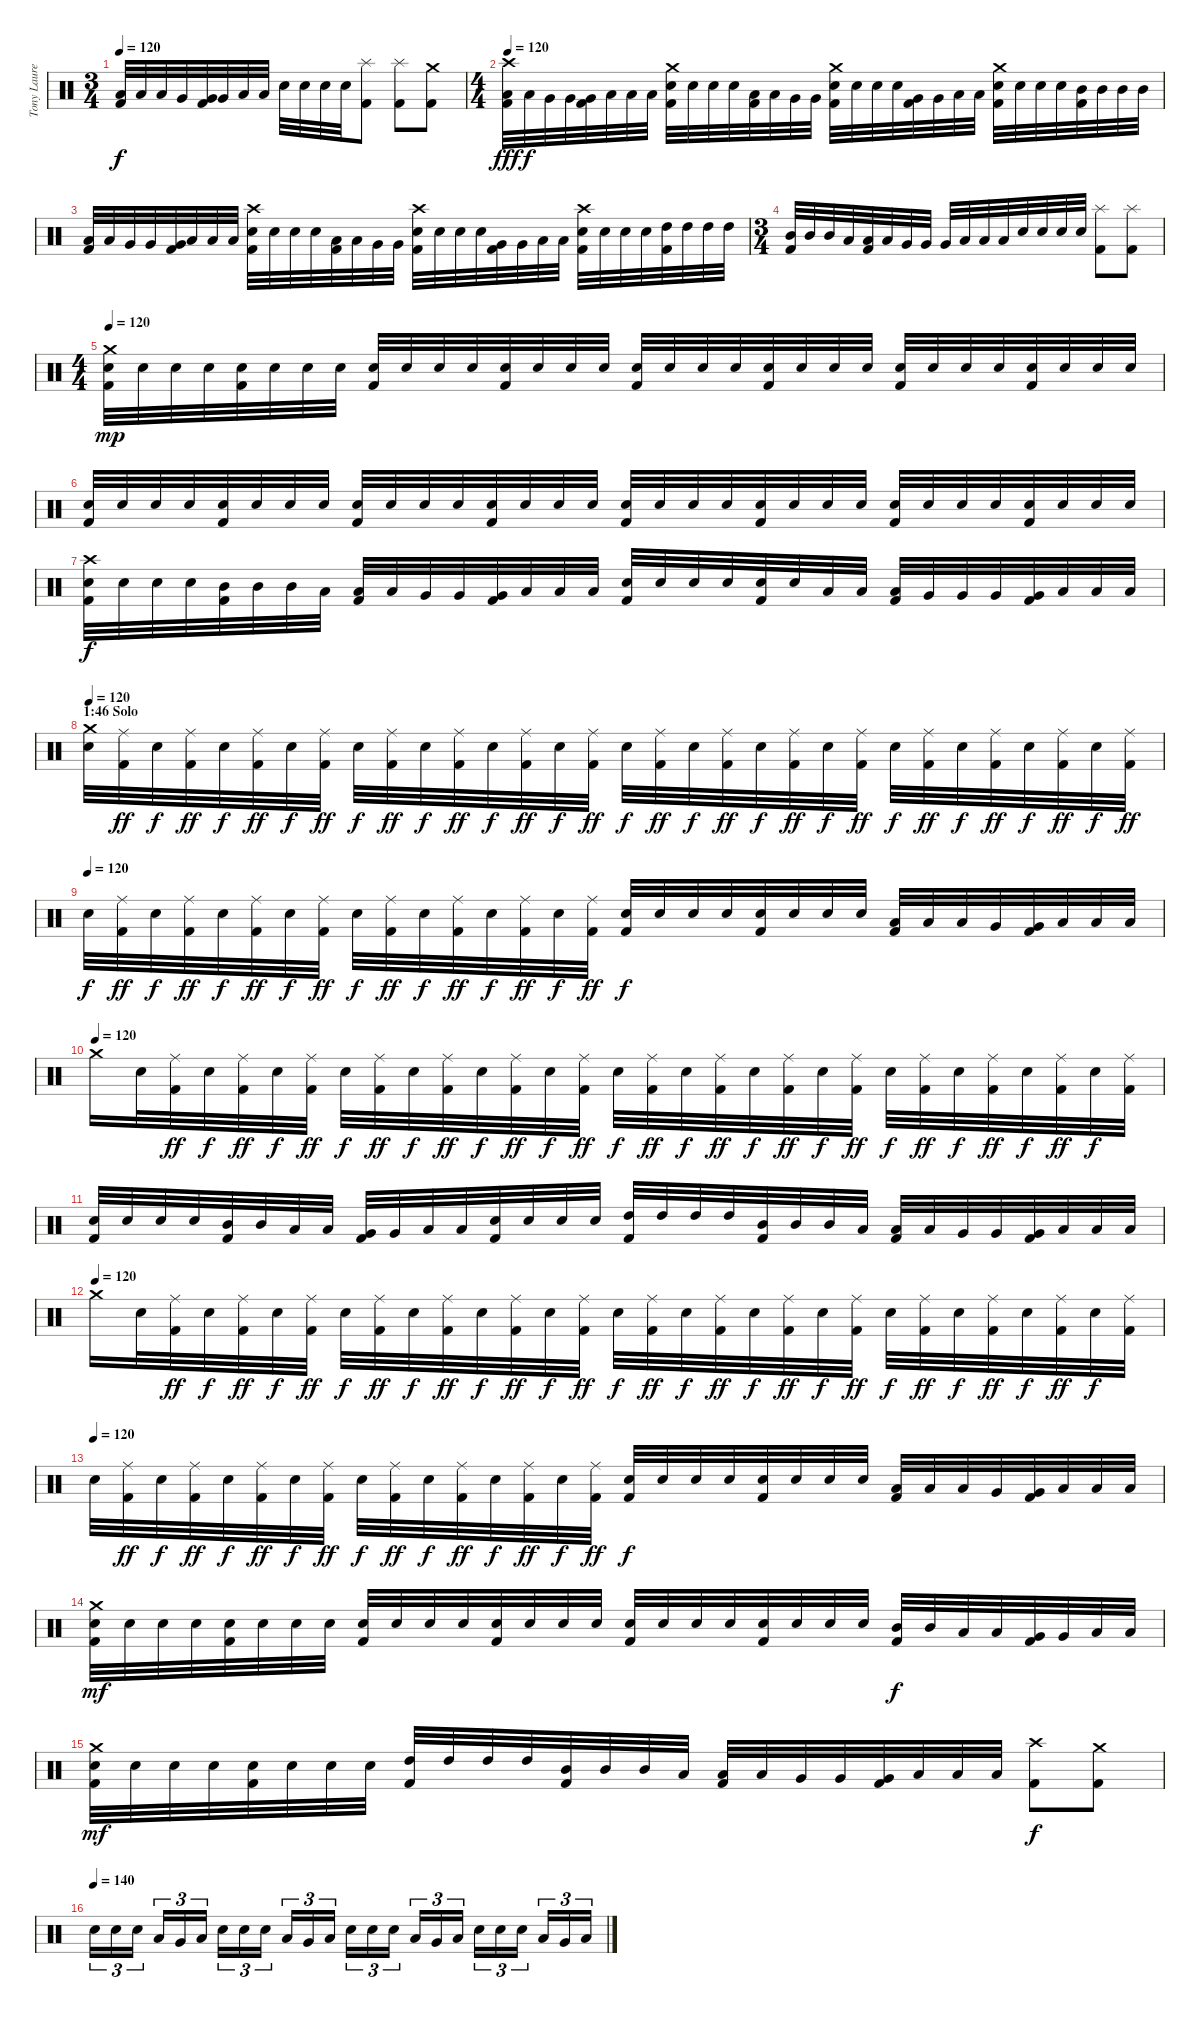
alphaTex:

\track ("Tony Laureano" "Tony Laure") {instrument percussion}
\staff {score}
\articulation defaults
\ts (3 4)
\tempo 120
\clef neutral
\ks c
("Low Tom (hit)" "Kick (hit) 2").32{dy f} "Low Tom (hit)".32 "Low Tom (hit)".32 "Very Low Tom (hit)".32 ("Very Low Tom (hit)" "Kick (hit) 2").32 "Very Low Tom (hit)".32 "Low Floor Tom (hit)".32 "Low Floor Tom (hit)".32 "Electric Snare (hit)".32 "Electric Snare (hit)".32 "Electric Snare (hit)".32 "Electric Snare (hit)".32 ("Splash (hit)" "Kick (hit) 2").8 ("Splash (hit)" "Kick (hit) 2").8 ("Crash medium (hit)" "Kick (hit) 2").8 |
\ts (4 4)
\tempo 120
("Crash high (hit)" "Low Tom (hit)" "Kick (hit) 2").32{dy fff} "Low Tom (hit)".32{dy f} "Very Low Tom (hit)".32 "Very Low Tom (hit)".32 ("Very Low Tom (hit)" "Kick (hit) 2").32 "Low Floor Tom (hit)".32 "Low Floor Tom (hit)".32 "Low Floor Tom (hit)".32 ("Crash medium (hit)" "Electric Snare (hit)" "Kick (hit) 2").32 "Electric Snare (hit)".32 "Electric Snare (hit)".32 "Electric Snare (hit)".32 ("Low Tom (hit)" "Kick (hit) 2").32 "Low Tom (hit)".32 "Very Low Tom (hit)".32 "Very Low Tom (hit)".32 ("Crash medium (hit)" "Electric Snare (hit)" "Kick (hit) 2").32 "Electric Snare (hit)".32 "Electric Snare (hit)".32 "Electric Snare (hit)".32 ("Very Low Tom (hit)" "Kick (hit) 2").32 "Very Low Tom (hit)".32 "Low Floor Tom (hit)".32 "Low Floor Tom (hit)".32 ("Crash medium (hit)" "Electric Snare (hit)" "Kick (hit) 2").32 "Electric Snare (hit)".32 "Electric Snare (hit)".32 "Electric Snare (hit)".32 ("Mid Tom (hit)" "Kick (hit) 2").32 "Mid Tom (hit)".32 "Mid Tom (hit)".32 "Mid Tom (hit)".32 |
("Low Tom (hit)" "Kick (hit) 2").32 "Low Tom (hit)".32 "Very Low Tom (hit)".32 "Very Low Tom (hit)".32 ("Very Low Tom (hit)" "Kick (hit) 2").32 "Low Floor Tom (hit)".32 "Low Floor Tom (hit)".32 "Low Floor Tom (hit)".32 ("Crash high (hit)" "Electric Snare (hit)" "Kick (hit) 2").32 "Electric Snare (hit)".32 "Electric Snare (hit)".32 "Electric Snare (hit)".32 ("Low Tom (hit)" "Kick (hit) 2").32 "Low Tom (hit)".32 "Very Low Tom (hit)".32 "Very Low Tom (hit)".32 ("Crash high (hit)" "Electric Snare (hit)" "Kick (hit) 2").32 "Electric Snare (hit)".32 "Electric Snare (hit)".32 "Electric Snare (hit)".32 ("Very Low Tom (hit)" "Kick (hit) 2").32 "Very Low Tom (hit)".32 "Low Floor Tom (hit)".32 "Low Floor Tom (hit)".32 ("Crash high (hit)" "Electric Snare (hit)" "Kick (hit) 2").32 "Electric Snare (hit)".32 "Electric Snare (hit)".32 "Electric Snare (hit)".32 ("High Tom (hit)" "Kick (hit) 2").32 "High Tom (hit)".32 "High Tom (hit)".32 "High Tom (hit)".32 |
\ts (3 4)
("Mid Tom (hit)" "Kick (hit) 2").32 "Mid Tom (hit)".32 "Mid Tom (hit)".32 "Low Tom (hit)".32 ("Low Tom (hit)" "Kick (hit) 2").32 "Low Tom (hit)".32 "Very Low Tom (hit)".32 "Very Low Tom (hit)".32 "Very Low Tom (hit)".32 "Low Floor Tom (hit)".32 "Low Floor Tom (hit)".32 "Low Floor Tom (hit)".32 "Electric Snare (hit)".32 "Electric Snare (hit)".32 "Electric Snare (hit)".32 "Electric Snare (hit)".32 ("Splash (hit)" "Kick (hit) 2").8 ("Splash (hit)" "Kick (hit) 2").8 |
\ts (4 4)
\tempo 120
("Crash medium (hit)" "Electric Snare (hit)" "Kick (hit) 2").32{dy mp} "Electric Snare (hit)".32 "Electric Snare (hit)".32 "Electric Snare (hit)".32 ("Electric Snare (hit)" "Kick (hit) 2").32 "Electric Snare (hit)".32 "Electric Snare (hit)".32 "Electric Snare (hit)".32 ("Electric Snare (hit)" "Kick (hit) 2").32 "Electric Snare (hit)".32 "Electric Snare (hit)".32 "Electric Snare (hit)".32 ("Electric Snare (hit)" "Kick (hit) 2").32 "Electric Snare (hit)".32 "Electric Snare (hit)".32 "Electric Snare (hit)".32 ("Electric Snare (hit)" "Kick (hit) 2").32 "Electric Snare (hit)".32 "Electric Snare (hit)".32 "Electric Snare (hit)".32 ("Electric Snare (hit)" "Kick (hit) 2").32 "Electric Snare (hit)".32 "Electric Snare (hit)".32 "Electric Snare (hit)".32 ("Electric Snare (hit)" "Kick (hit) 2").32 "Electric Snare (hit)".32 "Electric Snare (hit)".32 "Electric Snare (hit)".32 ("Electric Snare (hit)" "Kick (hit) 2").32 "Electric Snare (hit)".32 "Electric Snare (hit)".32 "Electric Snare (hit)".32 |
("Electric Snare (hit)" "Kick (hit) 2").32 "Electric Snare (hit)".32 "Electric Snare (hit)".32 "Electric Snare (hit)".32 ("Electric Snare (hit)" "Kick (hit) 2").32 "Electric Snare (hit)".32 "Electric Snare (hit)".32 "Electric Snare (hit)".32 ("Electric Snare (hit)" "Kick (hit) 2").32 "Electric Snare (hit)".32 "Electric Snare (hit)".32 "Electric Snare (hit)".32 ("Electric Snare (hit)" "Kick (hit) 2").32 "Electric Snare (hit)".32 "Electric Snare (hit)".32 "Electric Snare (hit)".32 ("Electric Snare (hit)" "Kick (hit) 2").32 "Electric Snare (hit)".32 "Electric Snare (hit)".32 "Electric Snare (hit)".32 ("Electric Snare (hit)" "Kick (hit) 2").32 "Electric Snare (hit)".32 "Electric Snare (hit)".32 "Electric Snare (hit)".32 ("Electric Snare (hit)" "Kick (hit) 2").32 "Electric Snare (hit)".32 "Electric Snare (hit)".32 "Electric Snare (hit)".32 ("Electric Snare (hit)" "Kick (hit) 2").32 "Electric Snare (hit)".32 "Electric Snare (hit)".32 "Electric Snare (hit)".32 |
("Crash high (hit)" "Electric Snare (hit)" "Kick (hit) 2").32{dy f} "Electric Snare (hit)".32 "Electric Snare (hit)".32 "Electric Snare (hit)".32 ("Mid Tom (hit)" "Kick (hit) 2").32 "Mid Tom (hit)".32 "Mid Tom (hit)".32 "Low Tom (hit)".32 ("Low Tom (hit)" "Kick (hit) 2").32 "Low Tom (hit)".32 "Very Low Tom (hit)".32 "Very Low Tom (hit)".32 ("Very Low Tom (hit)" "Kick (hit) 2").32 "Low Floor Tom (hit)".32 "Low Floor Tom (hit)".32 "Low Floor Tom (hit)".32 ("Electric Snare (hit)" "Kick (hit) 2").32 "Electric Snare (hit)".32 "Electric Snare (hit)".32 "Electric Snare (hit)".32 ("Electric Snare (hit)" "Kick (hit) 2").32 "Electric Snare (hit)".32 "Low Tom (hit)".32 "Low Tom (hit)".32 ("Low Tom (hit)" "Kick (hit) 2").32 "Very Low Tom (hit)".32 "Very Low Tom (hit)".32 "Very Low Tom (hit)".32 ("Very Low Tom (hit)" "Kick (hit) 2").32 "Low Floor Tom (hit)".32 "Low Floor Tom (hit)".32 "Low Floor Tom (hit)".32 |
\section ("" "1:46 Solo")
\tempo 120
("Crash medium (hit)" "Electric Snare (hit)").32 ("Ride (middle)" "Kick (hit) 2").32{dy ff} "Electric Snare (hit)".32{dy f} ("Ride (middle)" "Kick (hit) 2").32{dy ff} "Electric Snare (hit)".32{dy f} ("Ride (middle)" "Kick (hit) 2").32{dy ff} "Electric Snare (hit)".32{dy f} ("Ride (middle)" "Kick (hit) 2").32{dy ff} "Electric Snare (hit)".32{dy f} ("Ride (middle)" "Kick (hit) 2").32{dy ff} "Electric Snare (hit)".32{dy f} ("Ride (middle)" "Kick (hit) 2").32{dy ff} "Electric Snare (hit)".32{dy f} ("Ride (middle)" "Kick (hit) 2").32{dy ff} "Electric Snare (hit)".32{dy f} ("Ride (middle)" "Kick (hit) 2").32{dy ff} "Electric Snare (hit)".32{dy f} ("Ride (middle)" "Kick (hit) 2").32{dy ff} "Electric Snare (hit)".32{dy f} ("Ride (middle)" "Kick (hit) 2").32{dy ff} "Electric Snare (hit)".32{dy f} ("Ride (middle)" "Kick (hit) 2").32{dy ff} "Electric Snare (hit)".32{dy f} ("Ride (middle)" "Kick (hit) 2").32{dy ff} "Electric Snare (hit)".32{dy f} ("Ride (middle)" "Kick (hit) 2").32{dy ff} "Electric Snare (hit)".32{dy f} ("Ride (middle)" "Kick (hit) 2").32{dy ff} "Electric Snare (hit)".32{dy f} ("Ride (middle)" "Kick (hit) 2").32{dy ff} "Electric Snare (hit)".32{dy f} ("Ride (middle)" "Kick (hit) 2").32{dy ff} |
\tempo (120)
"Electric Snare (hit)".32{dy f} ("Ride (middle)" "Kick (hit) 2").32{dy ff} "Electric Snare (hit)".32{dy f} ("Ride (middle)" "Kick (hit) 2").32{dy ff} "Electric Snare (hit)".32{dy f} ("Ride (middle)" "Kick (hit) 2").32{dy ff} "Electric Snare (hit)".32{dy f} ("Ride (middle)" "Kick (hit) 2").32{dy ff} "Electric Snare (hit)".32{dy f} ("Ride (middle)" "Kick (hit) 2").32{dy ff} "Electric Snare (hit)".32{dy f} ("Ride (middle)" "Kick (hit) 2").32{dy ff} "Electric Snare (hit)".32{dy f} ("Ride (middle)" "Kick (hit) 2").32{dy ff} "Electric Snare (hit)".32{dy f} ("Ride (middle)" "Kick (hit) 2").32{dy ff} ("Electric Snare (hit)" "Kick (hit) 2").32{dy f} "Electric Snare (hit)".32 "Electric Snare (hit)".32 "Electric Snare (hit)".32 ("Electric Snare (hit)" "Kick (hit) 2").32 "Electric Snare (hit)".32 "Electric Snare (hit)".32 "Electric Snare (hit)".32 ("Low Tom (hit)" "Kick (hit) 2").32 "Low Tom (hit)".32 "Low Tom (hit)".32 "Very Low Tom (hit)".32 ("Very Low Tom (hit)" "Kick (hit) 2").32 "Low Floor Tom (hit)".32 "Low Floor Tom (hit)".32 "Low Floor Tom (hit)".32 |
\tempo (120)
"Crash medium (hit)".16 "Electric Snare (hit)".32 ("Ride (middle)" "Kick (hit) 2").32{dy ff} "Electric Snare (hit)".32{dy f} ("Ride (middle)" "Kick (hit) 2").32{dy ff} "Electric Snare (hit)".32{dy f} ("Ride (middle)" "Kick (hit) 2").32{dy ff} "Electric Snare (hit)".32{dy f} ("Ride (middle)" "Kick (hit) 2").32{dy ff} "Electric Snare (hit)".32{dy f} ("Ride (middle)" "Kick (hit) 2").32{dy ff} "Electric Snare (hit)".32{dy f} ("Ride (middle)" "Kick (hit) 2").32{dy ff} "Electric Snare (hit)".32{dy f} ("Ride (middle)" "Kick (hit) 2").32{dy ff} "Electric Snare (hit)".32{dy f} ("Ride (middle)" "Kick (hit) 2").32{dy ff} "Electric Snare (hit)".32{dy f} ("Ride (middle)" "Kick (hit) 2").32{dy ff} "Electric Snare (hit)".32{dy f} ("Ride (middle)" "Kick (hit) 2").32{dy ff} "Electric Snare (hit)".32{dy f} ("Ride (middle)" "Kick (hit) 2").32{dy ff} "Electric Snare (hit)".32{dy f} ("Ride (middle)" "Kick (hit) 2").32{dy ff} "Electric Snare (hit)".32{dy f} ("Ride (middle)" "Kick (hit) 2").32{dy ff} "Electric Snare (hit)".32{dy f} ("Ride (middle)" "Kick (hit) 2").32{dy ff} "Electric Snare (hit)".32{dy f} ("Ride (middle)" "Kick (hit) 2").32 |
("Electric Snare (hit)" "Kick (hit) 2").32 "Electric Snare (hit)".32 "Electric Snare (hit)".32 "Electric Snare (hit)".32 ("Mid Tom (hit)" "Kick (hit) 2").32 "Mid Tom (hit)".32 "Low Tom (hit)".32 "Low Tom (hit)".32 ("Very Low Tom (hit)" "Kick (hit) 2").32 "Very Low Tom (hit)".32 "Low Floor Tom (hit)".32 "Low Floor Tom (hit)".32 ("Electric Snare (hit)" "Kick (hit) 2").32 "Electric Snare (hit)".32 "Electric Snare (hit)".32 "Electric Snare (hit)".32 ("High Tom (hit)" "Kick (hit) 2").32 "High Tom (hit)".32 "High Tom (hit)".32 "High Tom (hit)".32 ("Mid Tom (hit)" "Kick (hit) 2").32 "Mid Tom (hit)".32 "Mid Tom (hit)".32 "Low Tom (hit)".32 ("Low Tom (hit)" "Kick (hit) 2").32 "Low Tom (hit)".32 "Very Low Tom (hit)".32 "Very Low Tom (hit)".32 ("Very Low Tom (hit)" "Kick (hit) 2").32 "Low Floor Tom (hit)".32 "Low Floor Tom (hit)".32 "Low Floor Tom (hit)".32 |
\tempo (120)
"Crash medium (hit)".16 "Electric Snare (hit)".32 ("Ride (middle)" "Kick (hit) 2").32{dy ff} "Electric Snare (hit)".32{dy f} ("Ride (middle)" "Kick (hit) 2").32{dy ff} "Electric Snare (hit)".32{dy f} ("Ride (middle)" "Kick (hit) 2").32{dy ff} "Electric Snare (hit)".32{dy f} ("Ride (middle)" "Kick (hit) 2").32{dy ff} "Electric Snare (hit)".32{dy f} ("Ride (middle)" "Kick (hit) 2").32{dy ff} "Electric Snare (hit)".32{dy f} ("Ride (middle)" "Kick (hit) 2").32{dy ff} "Electric Snare (hit)".32{dy f} ("Ride (middle)" "Kick (hit) 2").32{dy ff} "Electric Snare (hit)".32{dy f} ("Ride (middle)" "Kick (hit) 2").32{dy ff} "Electric Snare (hit)".32{dy f} ("Ride (middle)" "Kick (hit) 2").32{dy ff} "Electric Snare (hit)".32{dy f} ("Ride (middle)" "Kick (hit) 2").32{dy ff} "Electric Snare (hit)".32{dy f} ("Ride (middle)" "Kick (hit) 2").32{dy ff} "Electric Snare (hit)".32{dy f} ("Ride (middle)" "Kick (hit) 2").32{dy ff} "Electric Snare (hit)".32{dy f} ("Ride (middle)" "Kick (hit) 2").32{dy ff} "Electric Snare (hit)".32{dy f} ("Ride (middle)" "Kick (hit) 2").32{dy ff} "Electric Snare (hit)".32{dy f} ("Ride (middle)" "Kick (hit) 2").32 |
\tempo (120)
"Electric Snare (hit)".32 ("Ride (middle)" "Kick (hit) 2").32{dy ff} "Electric Snare (hit)".32{dy f} ("Ride (middle)" "Kick (hit) 2").32{dy ff} "Electric Snare (hit)".32{dy f} ("Ride (middle)" "Kick (hit) 2").32{dy ff} "Electric Snare (hit)".32{dy f} ("Ride (middle)" "Kick (hit) 2").32{dy ff} "Electric Snare (hit)".32{dy f} ("Ride (middle)" "Kick (hit) 2").32{dy ff} "Electric Snare (hit)".32{dy f} ("Ride (middle)" "Kick (hit) 2").32{dy ff} "Electric Snare (hit)".32{dy f} ("Ride (middle)" "Kick (hit) 2").32{dy ff} "Electric Snare (hit)".32{dy f} ("Ride (middle)" "Kick (hit) 2").32{dy ff} ("Electric Snare (hit)" "Kick (hit) 2").32{dy f} "Electric Snare (hit)".32 "Electric Snare (hit)".32 "Electric Snare (hit)".32 ("Electric Snare (hit)" "Kick (hit) 2").32 "Electric Snare (hit)".32 "Electric Snare (hit)".32 "Electric Snare (hit)".32 ("Low Tom (hit)" "Kick (hit) 2").32 "Low Tom (hit)".32 "Low Tom (hit)".32 "Very Low Tom (hit)".32 ("Very Low Tom (hit)" "Kick (hit) 2").32 "Low Floor Tom (hit)".32 "Low Floor Tom (hit)".32 "Low Floor Tom (hit)".32 |
("Crash medium (hit)" "Electric Snare (hit)" "Kick (hit) 2").32{dy mf} "Electric Snare (hit)".32 "Electric Snare (hit)".32 "Electric Snare (hit)".32 ("Electric Snare (hit)" "Kick (hit) 2").32 "Electric Snare (hit)".32 "Electric Snare (hit)".32 "Electric Snare (hit)".32 ("Electric Snare (hit)" "Kick (hit) 2").32 "Electric Snare (hit)".32 "Electric Snare (hit)".32 "Electric Snare (hit)".32 ("Electric Snare (hit)" "Kick (hit) 2").32 "Electric Snare (hit)".32 "Electric Snare (hit)".32 "Electric Snare (hit)".32 ("Electric Snare (hit)" "Kick (hit) 2").32 "Electric Snare (hit)".32 "Electric Snare (hit)".32 "Electric Snare (hit)".32 ("Electric Snare (hit)" "Kick (hit) 2").32 "Electric Snare (hit)".32 "Electric Snare (hit)".32 "Electric Snare (hit)".32 ("Mid Tom (hit)" "Kick (hit) 2").32{dy f} "Mid Tom (hit)".32 "Low Tom (hit)".32 "Low Tom (hit)".32 ("Very Low Tom (hit)" "Kick (hit) 2").32 "Very Low Tom (hit)".32 "Low Floor Tom (hit)".32 "Low Floor Tom (hit)".32 |
("Crash medium (hit)" "Electric Snare (hit)" "Kick (hit) 2").32{dy mf} "Electric Snare (hit)".32 "Electric Snare (hit)".32 "Electric Snare (hit)".32 ("Electric Snare (hit)" "Kick (hit) 2").32 "Electric Snare (hit)".32 "Electric Snare (hit)".32 "Electric Snare (hit)".32 ("High Tom (hit)" "Kick (hit) 2").32 "High Tom (hit)".32 "High Tom (hit)".32 "High Tom (hit)".32 ("Mid Tom (hit)" "Kick (hit) 2").32 "Mid Tom (hit)".32 "Mid Tom (hit)".32 "Low Tom (hit)".32 ("Low Tom (hit)" "Kick (hit) 2").32 "Low Tom (hit)".32 "Very Low Tom (hit)".32 "Very Low Tom (hit)".32 ("Very Low Tom (hit)" "Kick (hit) 2").32 "Low Floor Tom (hit)".32 "Low Floor Tom (hit)".32 "Low Floor Tom (hit)".32 ("Crash high (hit)" "Kick (hit) 2").8{dy f} ("Crash medium (hit)" "Kick (hit) 2").8 |
\tempo (140)
"Electric Snare (hit)".16{tu (3 2)} "Electric Snare (hit)".16{tu (3 2)} "Electric Snare (hit)".16{tu (3 2)} "Low Tom (hit)".16{tu (3 2)} "Very Low Tom (hit)".16{tu (3 2)} "Low Floor Tom (hit)".16{tu (3 2)} "Electric Snare (hit)".16{tu (3 2)} "Electric Snare (hit)".16{tu (3 2)} "Electric Snare (hit)".16{tu (3 2)} "Low Tom (hit)".16{tu (3 2)} "Very Low Tom (hit)".16{tu (3 2)} "Low Floor Tom (hit)".16{tu (3 2)} "Electric Snare (hit)".16{tu (3 2)} "Electric Snare (hit)".16{tu (3 2)} "Electric Snare (hit)".16{tu (3 2)} "Low Tom (hit)".16{tu (3 2)} "Very Low Tom (hit)".16{tu (3 2)} "Low Floor Tom (hit)".16{tu (3 2)} "Electric Snare (hit)".16{tu (3 2)} "Electric Snare (hit)".16{tu (3 2)} "Electric Snare (hit)".16{tu (3 2)} "Low Tom (hit)".16{tu (3 2)} "Very Low Tom (hit)".16{tu (3 2)} "Low Floor Tom (hit)".16{tu (3 2)}
